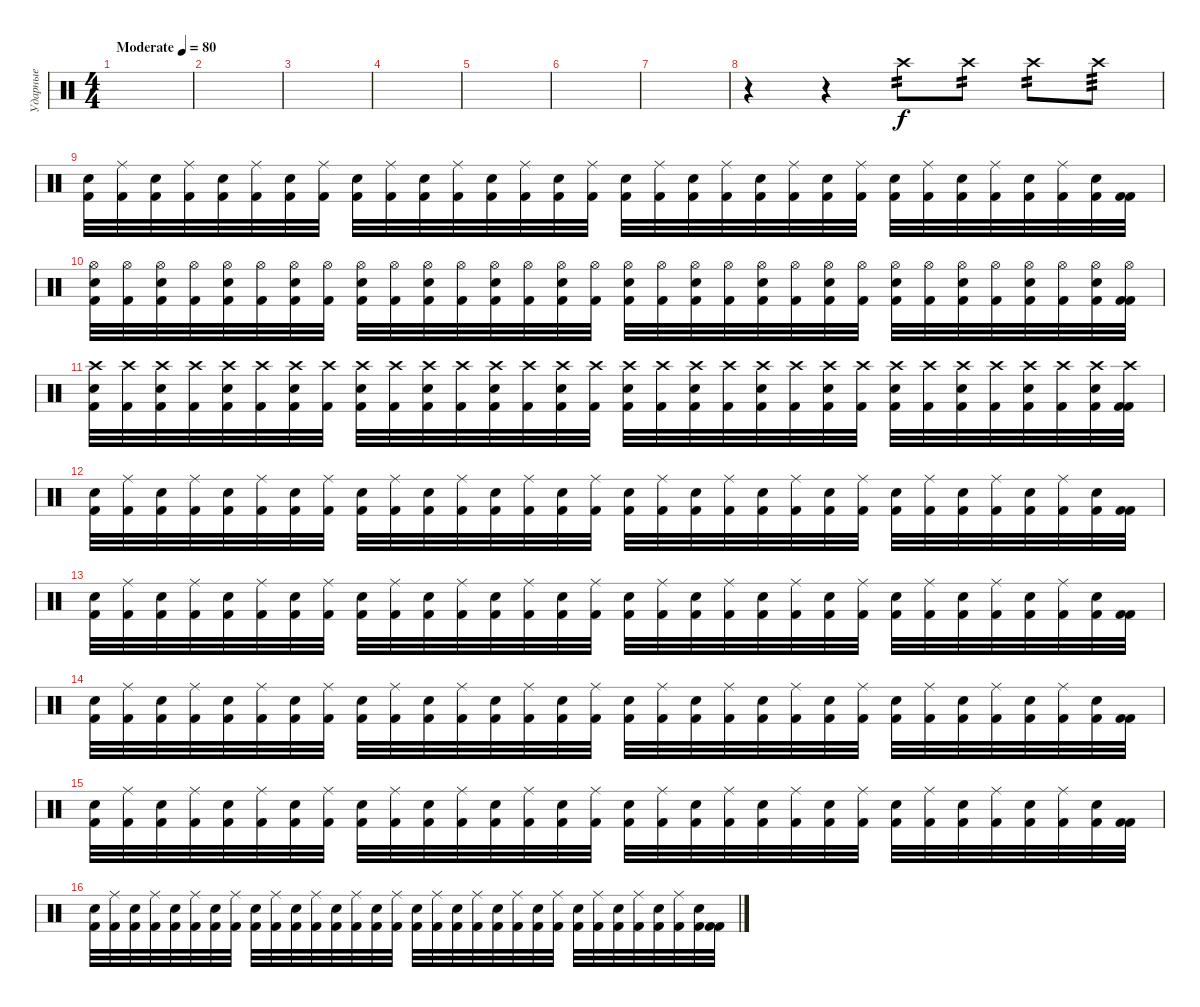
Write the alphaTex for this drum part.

\track ("Ударные" "Ударные") {instrument percussion}
\staff {score}
\articulation defaults
\ts (4 4)
\tempo (80 "Moderate")
\clef neutral
\ks c
|
|
|
|
|
|
|
r.4 r.4 "Crash high (hit)".8{tp 2} "Crash high (hit)".8{tp 2} "Crash high (hit)".8{tp 2} "Crash high (hit)".8{tp 3} |
("Electric Snare (hit)" "Kick (hit) 2").32 ("Ride (middle)" "Kick (hit) 2").32 ("Electric Snare (hit)" "Kick (hit) 2").32 ("Ride (middle)" "Kick (hit) 2").32 ("Electric Snare (hit)" "Kick (hit) 2").32 ("Ride (middle)" "Kick (hit) 2").32 ("Electric Snare (hit)" "Kick (hit) 2").32 ("Ride (middle)" "Kick (hit) 2").32 ("Electric Snare (hit)" "Kick (hit) 2").32 ("Ride (middle)" "Kick (hit) 2").32 ("Electric Snare (hit)" "Kick (hit) 2").32 ("Ride (middle)" "Kick (hit) 2").32 ("Electric Snare (hit)" "Kick (hit) 2").32 ("Ride (middle)" "Kick (hit) 2").32 ("Electric Snare (hit)" "Kick (hit) 2").32 ("Ride (middle)" "Kick (hit) 2").32 ("Electric Snare (hit)" "Kick (hit) 2").32 ("Ride (middle)" "Kick (hit) 2").32 ("Electric Snare (hit)" "Kick (hit) 2").32 ("Ride (middle)" "Kick (hit) 2").32 ("Electric Snare (hit)" "Kick (hit) 2").32 ("Ride (middle)" "Kick (hit) 2").32 ("Electric Snare (hit)" "Kick (hit) 2").32 ("Ride (middle)" "Kick (hit) 2").32 ("Electric Snare (hit)" "Kick (hit) 2").32 ("Ride (middle)" "Kick (hit) 2").32 ("Electric Snare (hit)" "Kick (hit) 2").32 ("Ride (middle)" "Kick (hit) 2").32 ("Electric Snare (hit)" "Kick (hit) 2").32 ("Ride (middle)" "Kick (hit) 2").32 ("Electric Snare (hit)" "Kick (hit) 2").32 ("Kick (hit) 2" "Kick (hit) 2").32 |
("Hi-Hat (open)" "Electric Snare (hit)" "Kick (hit) 2").32 ("Hi-Hat (open)" "Kick (hit) 2").32 ("Hi-Hat (open)" "Electric Snare (hit)" "Kick (hit) 2").32 ("Hi-Hat (open)" "Kick (hit) 2").32 ("Hi-Hat (open)" "Electric Snare (hit)" "Kick (hit) 2").32 ("Hi-Hat (open)" "Kick (hit) 2").32 ("Hi-Hat (open)" "Electric Snare (hit)" "Kick (hit) 2").32 ("Hi-Hat (open)" "Kick (hit) 2").32 ("Hi-Hat (open)" "Electric Snare (hit)" "Kick (hit) 2").32 ("Hi-Hat (open)" "Kick (hit) 2").32 ("Hi-Hat (open)" "Electric Snare (hit)" "Kick (hit) 2").32 ("Hi-Hat (open)" "Kick (hit) 2").32 ("Hi-Hat (open)" "Electric Snare (hit)" "Kick (hit) 2").32 ("Hi-Hat (open)" "Kick (hit) 2").32 ("Hi-Hat (open)" "Electric Snare (hit)" "Kick (hit) 2").32 ("Hi-Hat (open)" "Kick (hit) 2").32 ("Hi-Hat (open)" "Electric Snare (hit)" "Kick (hit) 2").32 ("Hi-Hat (open)" "Kick (hit) 2").32 ("Hi-Hat (open)" "Electric Snare (hit)" "Kick (hit) 2").32 ("Hi-Hat (open)" "Kick (hit) 2").32 ("Hi-Hat (open)" "Electric Snare (hit)" "Kick (hit) 2").32 ("Hi-Hat (open)" "Kick (hit) 2").32 ("Hi-Hat (open)" "Electric Snare (hit)" "Kick (hit) 2").32 ("Hi-Hat (open)" "Kick (hit) 2").32 ("Hi-Hat (open)" "Electric Snare (hit)" "Kick (hit) 2").32 ("Hi-Hat (open)" "Kick (hit) 2").32 ("Hi-Hat (open)" "Electric Snare (hit)" "Kick (hit) 2").32 ("Hi-Hat (open)" "Kick (hit) 2").32 ("Hi-Hat (open)" "Electric Snare (hit)" "Kick (hit) 2").32 ("Hi-Hat (open)" "Kick (hit) 2").32 ("Hi-Hat (open)" "Electric Snare (hit)" "Kick (hit) 2").32 ("Hi-Hat (open)" "Kick (hit) 2" "Kick (hit) 2").32 |
("Crash high (hit)" "Electric Snare (hit)" "Kick (hit) 2").32 ("Crash high (hit)" "Kick (hit) 2").32 ("Crash high (hit)" "Electric Snare (hit)" "Kick (hit) 2").32 ("Crash high (hit)" "Kick (hit) 2").32 ("Crash high (hit)" "Electric Snare (hit)" "Kick (hit) 2").32 ("Crash high (hit)" "Kick (hit) 2").32 ("Crash high (hit)" "Electric Snare (hit)" "Kick (hit) 2").32 ("Crash high (hit)" "Kick (hit) 2").32 ("Crash high (hit)" "Electric Snare (hit)" "Kick (hit) 2").32 ("Crash high (hit)" "Kick (hit) 2").32 ("Crash high (hit)" "Electric Snare (hit)" "Kick (hit) 2").32 ("Crash high (hit)" "Kick (hit) 2").32 ("Crash high (hit)" "Electric Snare (hit)" "Kick (hit) 2").32 ("Crash high (hit)" "Kick (hit) 2").32 ("Crash high (hit)" "Electric Snare (hit)" "Kick (hit) 2").32 ("Crash high (hit)" "Kick (hit) 2").32 ("Crash high (hit)" "Electric Snare (hit)" "Kick (hit) 2").32 ("Crash high (hit)" "Kick (hit) 2").32 ("Crash high (hit)" "Electric Snare (hit)" "Kick (hit) 2").32 ("Crash high (hit)" "Kick (hit) 2").32 ("Crash high (hit)" "Electric Snare (hit)" "Kick (hit) 2").32 ("Crash high (hit)" "Kick (hit) 2").32 ("Crash high (hit)" "Electric Snare (hit)" "Kick (hit) 2").32 ("Crash high (hit)" "Kick (hit) 2").32 ("Crash high (hit)" "Electric Snare (hit)" "Kick (hit) 2").32 ("Crash high (hit)" "Kick (hit) 2").32 ("Crash high (hit)" "Electric Snare (hit)" "Kick (hit) 2").32 ("Crash high (hit)" "Kick (hit) 2").32 ("Crash high (hit)" "Electric Snare (hit)" "Kick (hit) 2").32 ("Crash high (hit)" "Kick (hit) 2").32 ("Crash high (hit)" "Electric Snare (hit)" "Kick (hit) 2").32 ("Crash high (hit)" "Kick (hit) 2" "Kick (hit) 2").32 |
("Electric Snare (hit)" "Kick (hit) 2").32 ("Ride (middle)" "Kick (hit) 2").32 ("Electric Snare (hit)" "Kick (hit) 2").32 ("Ride (middle)" "Kick (hit) 2").32 ("Electric Snare (hit)" "Kick (hit) 2").32 ("Ride (middle)" "Kick (hit) 2").32 ("Electric Snare (hit)" "Kick (hit) 2").32 ("Ride (middle)" "Kick (hit) 2").32 ("Electric Snare (hit)" "Kick (hit) 2").32 ("Ride (middle)" "Kick (hit) 2").32 ("Electric Snare (hit)" "Kick (hit) 2").32 ("Ride (middle)" "Kick (hit) 2").32 ("Electric Snare (hit)" "Kick (hit) 2").32 ("Ride (middle)" "Kick (hit) 2").32 ("Electric Snare (hit)" "Kick (hit) 2").32 ("Ride (middle)" "Kick (hit) 2").32 ("Electric Snare (hit)" "Kick (hit) 2").32 ("Ride (middle)" "Kick (hit) 2").32 ("Electric Snare (hit)" "Kick (hit) 2").32 ("Ride (middle)" "Kick (hit) 2").32 ("Electric Snare (hit)" "Kick (hit) 2").32 ("Ride (middle)" "Kick (hit) 2").32 ("Electric Snare (hit)" "Kick (hit) 2").32 ("Ride (middle)" "Kick (hit) 2").32 ("Electric Snare (hit)" "Kick (hit) 2").32 ("Ride (middle)" "Kick (hit) 2").32 ("Electric Snare (hit)" "Kick (hit) 2").32 ("Ride (middle)" "Kick (hit) 2").32 ("Electric Snare (hit)" "Kick (hit) 2").32 ("Ride (middle)" "Kick (hit) 2").32 ("Electric Snare (hit)" "Kick (hit) 2").32 ("Kick (hit) 2" "Kick (hit) 2").32 |
("Electric Snare (hit)" "Kick (hit) 2").32 ("Ride (middle)" "Kick (hit) 2").32 ("Electric Snare (hit)" "Kick (hit) 2").32 ("Ride (middle)" "Kick (hit) 2").32 ("Electric Snare (hit)" "Kick (hit) 2").32 ("Ride (middle)" "Kick (hit) 2").32 ("Electric Snare (hit)" "Kick (hit) 2").32 ("Ride (middle)" "Kick (hit) 2").32 ("Electric Snare (hit)" "Kick (hit) 2").32 ("Ride (middle)" "Kick (hit) 2").32 ("Electric Snare (hit)" "Kick (hit) 2").32 ("Ride (middle)" "Kick (hit) 2").32 ("Electric Snare (hit)" "Kick (hit) 2").32 ("Ride (middle)" "Kick (hit) 2").32 ("Electric Snare (hit)" "Kick (hit) 2").32 ("Ride (middle)" "Kick (hit) 2").32 ("Electric Snare (hit)" "Kick (hit) 2").32 ("Ride (middle)" "Kick (hit) 2").32 ("Electric Snare (hit)" "Kick (hit) 2").32 ("Ride (middle)" "Kick (hit) 2").32 ("Electric Snare (hit)" "Kick (hit) 2").32 ("Ride (middle)" "Kick (hit) 2").32 ("Electric Snare (hit)" "Kick (hit) 2").32 ("Ride (middle)" "Kick (hit) 2").32 ("Electric Snare (hit)" "Kick (hit) 2").32 ("Ride (middle)" "Kick (hit) 2").32 ("Electric Snare (hit)" "Kick (hit) 2").32 ("Ride (middle)" "Kick (hit) 2").32 ("Electric Snare (hit)" "Kick (hit) 2").32 ("Ride (middle)" "Kick (hit) 2").32 ("Electric Snare (hit)" "Kick (hit) 2").32 ("Kick (hit) 2" "Kick (hit) 2").32 |
("Electric Snare (hit)" "Kick (hit) 2").32 ("Ride (middle)" "Kick (hit) 2").32 ("Electric Snare (hit)" "Kick (hit) 2").32 ("Ride (middle)" "Kick (hit) 2").32 ("Electric Snare (hit)" "Kick (hit) 2").32 ("Ride (middle)" "Kick (hit) 2").32 ("Electric Snare (hit)" "Kick (hit) 2").32 ("Ride (middle)" "Kick (hit) 2").32 ("Electric Snare (hit)" "Kick (hit) 2").32 ("Ride (middle)" "Kick (hit) 2").32 ("Electric Snare (hit)" "Kick (hit) 2").32 ("Ride (middle)" "Kick (hit) 2").32 ("Electric Snare (hit)" "Kick (hit) 2").32 ("Ride (middle)" "Kick (hit) 2").32 ("Electric Snare (hit)" "Kick (hit) 2").32 ("Ride (middle)" "Kick (hit) 2").32 ("Electric Snare (hit)" "Kick (hit) 2").32 ("Ride (middle)" "Kick (hit) 2").32 ("Electric Snare (hit)" "Kick (hit) 2").32 ("Ride (middle)" "Kick (hit) 2").32 ("Electric Snare (hit)" "Kick (hit) 2").32 ("Ride (middle)" "Kick (hit) 2").32 ("Electric Snare (hit)" "Kick (hit) 2").32 ("Ride (middle)" "Kick (hit) 2").32 ("Electric Snare (hit)" "Kick (hit) 2").32 ("Ride (middle)" "Kick (hit) 2").32 ("Electric Snare (hit)" "Kick (hit) 2").32 ("Ride (middle)" "Kick (hit) 2").32 ("Electric Snare (hit)" "Kick (hit) 2").32 ("Ride (middle)" "Kick (hit) 2").32 ("Electric Snare (hit)" "Kick (hit) 2").32 ("Kick (hit) 2" "Kick (hit) 2").32 |
("Electric Snare (hit)" "Kick (hit) 2").32 ("Ride (middle)" "Kick (hit) 2").32 ("Electric Snare (hit)" "Kick (hit) 2").32 ("Ride (middle)" "Kick (hit) 2").32 ("Electric Snare (hit)" "Kick (hit) 2").32 ("Ride (middle)" "Kick (hit) 2").32 ("Electric Snare (hit)" "Kick (hit) 2").32 ("Ride (middle)" "Kick (hit) 2").32 ("Electric Snare (hit)" "Kick (hit) 2").32 ("Ride (middle)" "Kick (hit) 2").32 ("Electric Snare (hit)" "Kick (hit) 2").32 ("Ride (middle)" "Kick (hit) 2").32 ("Electric Snare (hit)" "Kick (hit) 2").32 ("Ride (middle)" "Kick (hit) 2").32 ("Electric Snare (hit)" "Kick (hit) 2").32 ("Ride (middle)" "Kick (hit) 2").32 ("Electric Snare (hit)" "Kick (hit) 2").32 ("Ride (middle)" "Kick (hit) 2").32 ("Electric Snare (hit)" "Kick (hit) 2").32 ("Ride (middle)" "Kick (hit) 2").32 ("Electric Snare (hit)" "Kick (hit) 2").32 ("Ride (middle)" "Kick (hit) 2").32 ("Electric Snare (hit)" "Kick (hit) 2").32 ("Ride (middle)" "Kick (hit) 2").32 ("Electric Snare (hit)" "Kick (hit) 2").32 ("Ride (middle)" "Kick (hit) 2").32 ("Electric Snare (hit)" "Kick (hit) 2").32 ("Ride (middle)" "Kick (hit) 2").32 ("Electric Snare (hit)" "Kick (hit) 2").32 ("Ride (middle)" "Kick (hit) 2").32 ("Electric Snare (hit)" "Kick (hit) 2").32 ("Kick (hit) 2" "Kick (hit) 2").32 |
("Electric Snare (hit)" "Kick (hit) 2").32 ("Ride (middle)" "Kick (hit) 2").32 ("Electric Snare (hit)" "Kick (hit) 2").32 ("Ride (middle)" "Kick (hit) 2").32 ("Electric Snare (hit)" "Kick (hit) 2").32 ("Ride (middle)" "Kick (hit) 2").32 ("Electric Snare (hit)" "Kick (hit) 2").32 ("Ride (middle)" "Kick (hit) 2").32 ("Electric Snare (hit)" "Kick (hit) 2").32 ("Ride (middle)" "Kick (hit) 2").32 ("Electric Snare (hit)" "Kick (hit) 2").32 ("Ride (middle)" "Kick (hit) 2").32 ("Electric Snare (hit)" "Kick (hit) 2").32 ("Ride (middle)" "Kick (hit) 2").32 ("Electric Snare (hit)" "Kick (hit) 2").32 ("Ride (middle)" "Kick (hit) 2").32 ("Electric Snare (hit)" "Kick (hit) 2").32 ("Ride (middle)" "Kick (hit) 2").32 ("Electric Snare (hit)" "Kick (hit) 2").32 ("Ride (middle)" "Kick (hit) 2").32 ("Electric Snare (hit)" "Kick (hit) 2").32 ("Ride (middle)" "Kick (hit) 2").32 ("Electric Snare (hit)" "Kick (hit) 2").32 ("Ride (middle)" "Kick (hit) 2").32 ("Electric Snare (hit)" "Kick (hit) 2").32 ("Ride (middle)" "Kick (hit) 2").32 ("Electric Snare (hit)" "Kick (hit) 2").32 ("Ride (middle)" "Kick (hit) 2").32 ("Electric Snare (hit)" "Kick (hit) 2").32 ("Ride (middle)" "Kick (hit) 2").32 ("Electric Snare (hit)" "Kick (hit) 2").32 ("Kick (hit) 2" "Kick (hit) 2").32
